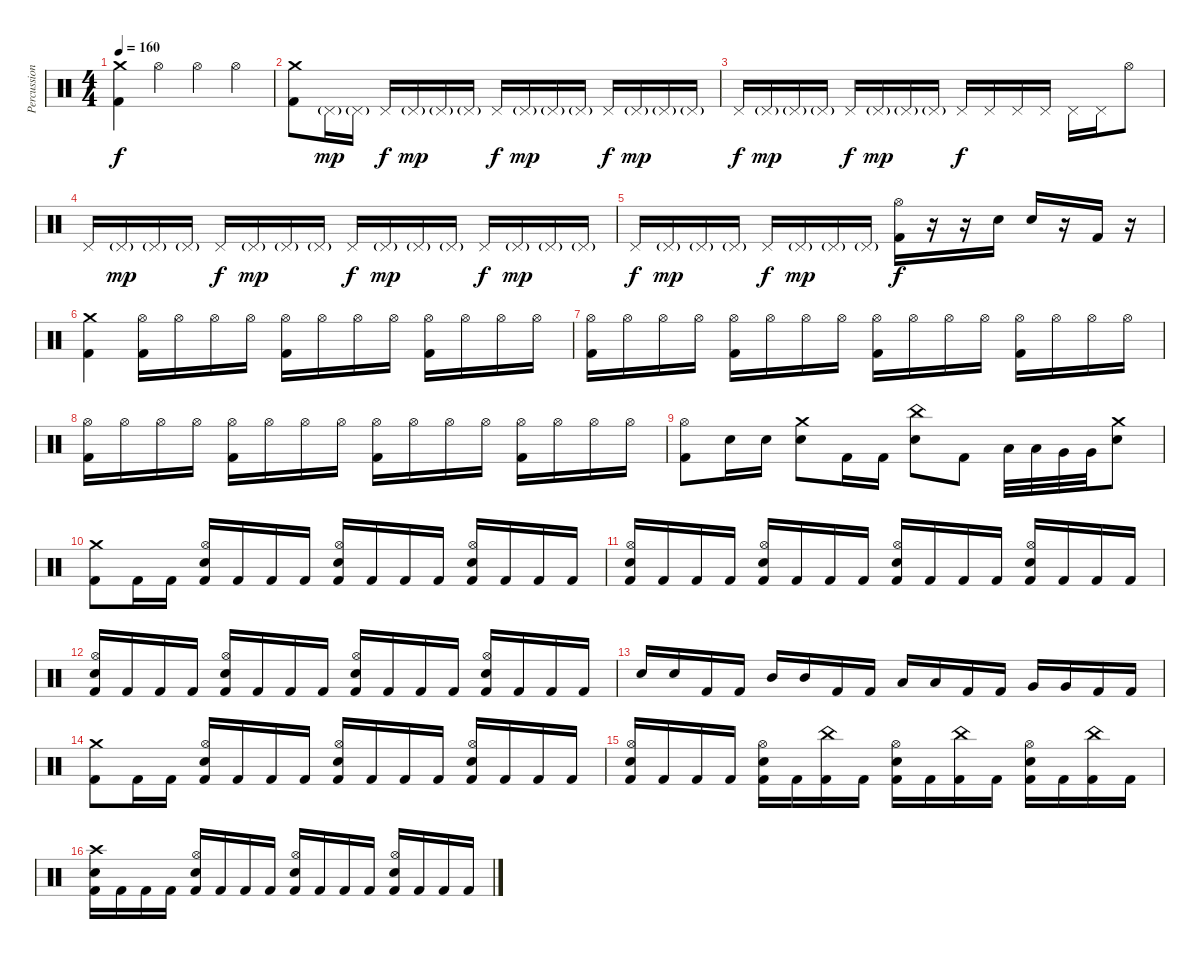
\track ("Percussion" "Percussion") {instrument percussion}
\staff {score}
\articulation defaults
\ts (4 4)
\tempo 160
\clef neutral
\ks c
("Crash medium (hit)" "Kick (hit) 2").4{dy f} "Hi-Hat (open)".4 "Hi-Hat (open)".4 "Hi-Hat (open)".4 |
("Crash medium (hit)" "Kick (hit) 2").8 "Pedal Hi-Hat (hit)"{g}.16{dy mp} "Pedal Hi-Hat (hit)"{g}.16 "Pedal Hi-Hat (hit)".16{dy f} "Pedal Hi-Hat (hit)"{g}.16{dy mp} "Pedal Hi-Hat (hit)"{g}.16 "Pedal Hi-Hat (hit)"{g}.16 "Pedal Hi-Hat (hit)".16{dy f} "Pedal Hi-Hat (hit)"{g}.16{dy mp} "Pedal Hi-Hat (hit)"{g}.16 "Pedal Hi-Hat (hit)"{g}.16 "Pedal Hi-Hat (hit)".16{dy f} "Pedal Hi-Hat (hit)"{g}.16{dy mp} "Pedal Hi-Hat (hit)"{g}.16 "Pedal Hi-Hat (hit)"{g}.16 |
"Pedal Hi-Hat (hit)".16{dy f} "Pedal Hi-Hat (hit)"{g}.16{dy mp} "Pedal Hi-Hat (hit)"{g}.16 "Pedal Hi-Hat (hit)"{g}.16 "Pedal Hi-Hat (hit)".16{dy f} "Pedal Hi-Hat (hit)"{g}.16{dy mp} "Pedal Hi-Hat (hit)"{g}.16 "Pedal Hi-Hat (hit)"{g}.16 "Pedal Hi-Hat (hit)".16{dy f} "Pedal Hi-Hat (hit)".16 "Pedal Hi-Hat (hit)".16 "Pedal Hi-Hat (hit)".16 "Pedal Hi-Hat (hit)".16 "Pedal Hi-Hat (hit)".16 "Hi-Hat (open)".8 |
"Pedal Hi-Hat (hit)".16 "Pedal Hi-Hat (hit)"{g}.16{dy mp} "Pedal Hi-Hat (hit)"{g}.16 "Pedal Hi-Hat (hit)"{g}.16 "Pedal Hi-Hat (hit)".16{dy f} "Pedal Hi-Hat (hit)"{g}.16{dy mp} "Pedal Hi-Hat (hit)"{g}.16 "Pedal Hi-Hat (hit)"{g}.16 "Pedal Hi-Hat (hit)".16{dy f} "Pedal Hi-Hat (hit)"{g}.16{dy mp} "Pedal Hi-Hat (hit)"{g}.16 "Pedal Hi-Hat (hit)"{g}.16 "Pedal Hi-Hat (hit)".16{dy f} "Pedal Hi-Hat (hit)"{g}.16{dy mp} "Pedal Hi-Hat (hit)"{g}.16 "Pedal Hi-Hat (hit)"{g}.16 |
"Pedal Hi-Hat (hit)".16{dy f} "Pedal Hi-Hat (hit)"{g}.16{dy mp} "Pedal Hi-Hat (hit)"{g}.16 "Pedal Hi-Hat (hit)"{g}.16 "Pedal Hi-Hat (hit)".16{dy f} "Pedal Hi-Hat (hit)"{g}.16{dy mp} "Pedal Hi-Hat (hit)"{g}.16 "Pedal Hi-Hat (hit)"{g}.16 ("Hi-Hat (open)" "Kick (hit) 2").16{dy f} r.16 r.16 "Electric Snare (hit)".16 "Electric Snare (hit)".16 r.16 "Kick (hit) 2".16 r.16 |
("Crash medium (hit)" "Kick (hit) 2").4 ("Hi-Hat (open)" "Kick (hit) 2").16 "Hi-Hat (open)".16 "Hi-Hat (open)".16 "Hi-Hat (open)".16 ("Hi-Hat (open)" "Kick (hit) 2").16 "Hi-Hat (open)".16 "Hi-Hat (open)".16 "Hi-Hat (open)".16 ("Hi-Hat (open)" "Kick (hit) 2").16 "Hi-Hat (open)".16 "Hi-Hat (open)".16 "Hi-Hat (open)".16 |
("Hi-Hat (open)" "Kick (hit) 2").16 "Hi-Hat (open)".16 "Hi-Hat (open)".16 "Hi-Hat (open)".16 ("Hi-Hat (open)" "Kick (hit) 2").16 "Hi-Hat (open)".16 "Hi-Hat (open)".16 "Hi-Hat (open)".16 ("Hi-Hat (open)" "Kick (hit) 2").16 "Hi-Hat (open)".16 "Hi-Hat (open)".16 "Hi-Hat (open)".16 ("Hi-Hat (open)" "Kick (hit) 2").16 "Hi-Hat (open)".16 "Hi-Hat (open)".16 "Hi-Hat (open)".16 |
("Hi-Hat (open)" "Kick (hit) 2").16 "Hi-Hat (open)".16 "Hi-Hat (open)".16 "Hi-Hat (open)".16 ("Hi-Hat (open)" "Kick (hit) 2").16 "Hi-Hat (open)".16 "Hi-Hat (open)".16 "Hi-Hat (open)".16 ("Hi-Hat (open)" "Kick (hit) 2").16 "Hi-Hat (open)".16 "Hi-Hat (open)".16 "Hi-Hat (open)".16 ("Hi-Hat (open)" "Kick (hit) 2").16 "Hi-Hat (open)".16 "Hi-Hat (open)".16 "Hi-Hat (open)".16 |
("Hi-Hat (open)" "Kick (hit) 2").8 "Electric Snare (hit)".16 "Electric Snare (hit)".16 ("Crash medium (hit)" "Electric Snare (hit)").8 "Kick (hit) 2".16 "Kick (hit) 2".16 ("China (hit)" "Electric Snare (hit)").8 "Kick (hit) 2".8 "Low Tom (hit)".32 "Low Tom (hit)".32 "Very Low Tom (hit)".32 "Very Low Tom (hit)".32 ("Crash medium (hit)" "Electric Snare (hit)").8 |
("Crash medium (hit)" "Kick (hit) 2").8 "Kick (hit) 2".16 "Kick (hit) 2".16 ("Hi-Hat (open)" "Kick (hit) 2" "Electric Snare (hit)").16 "Kick (hit) 2".16 "Kick (hit) 2".16 "Kick (hit) 2".16 ("Hi-Hat (open)" "Kick (hit) 2" "Electric Snare (hit)").16 "Kick (hit) 2".16 "Kick (hit) 2".16 "Kick (hit) 2".16 ("Hi-Hat (open)" "Kick (hit) 2" "Electric Snare (hit)").16 "Kick (hit) 2".16 "Kick (hit) 2".16 "Kick (hit) 2".16 |
("Hi-Hat (open)" "Kick (hit) 2" "Electric Snare (hit)").16 "Kick (hit) 2".16 "Kick (hit) 2".16 "Kick (hit) 2".16 ("Hi-Hat (open)" "Kick (hit) 2" "Electric Snare (hit)").16 "Kick (hit) 2".16 "Kick (hit) 2".16 "Kick (hit) 2".16 ("Hi-Hat (open)" "Kick (hit) 2" "Electric Snare (hit)").16 "Kick (hit) 2".16 "Kick (hit) 2".16 "Kick (hit) 2".16 ("Hi-Hat (open)" "Kick (hit) 2" "Electric Snare (hit)").16 "Kick (hit) 2".16 "Kick (hit) 2".16 "Kick (hit) 2".16 |
("Hi-Hat (open)" "Kick (hit) 2" "Electric Snare (hit)").16 "Kick (hit) 2".16 "Kick (hit) 2".16 "Kick (hit) 2".16 ("Hi-Hat (open)" "Kick (hit) 2" "Electric Snare (hit)").16 "Kick (hit) 2".16 "Kick (hit) 2".16 "Kick (hit) 2".16 ("Hi-Hat (open)" "Kick (hit) 2" "Electric Snare (hit)").16 "Kick (hit) 2".16 "Kick (hit) 2".16 "Kick (hit) 2".16 ("Hi-Hat (open)" "Kick (hit) 2" "Electric Snare (hit)").16 "Kick (hit) 2".16 "Kick (hit) 2".16 "Kick (hit) 2".16 |
"Electric Snare (hit)".16 "Electric Snare (hit)".16 "Kick (hit) 2".16 "Kick (hit) 2".16 "Mid Tom (hit)".16 "Mid Tom (hit)".16 "Kick (hit) 2".16 "Kick (hit) 2".16 "Low Tom (hit)".16 "Low Tom (hit)".16 "Kick (hit) 2".16 "Kick (hit) 2".16 "Very Low Tom (hit)".16 "Very Low Tom (hit)".16 "Kick (hit) 2".16 "Kick (hit) 2".16 |
("Crash medium (hit)" "Kick (hit) 2").8 "Kick (hit) 2".16 "Kick (hit) 2".16 ("Hi-Hat (open)" "Kick (hit) 2" "Electric Snare (hit)").16 "Kick (hit) 2".16 "Kick (hit) 2".16 "Kick (hit) 2".16 ("Hi-Hat (open)" "Kick (hit) 2" "Electric Snare (hit)").16 "Kick (hit) 2".16 "Kick (hit) 2".16 "Kick (hit) 2".16 ("Hi-Hat (open)" "Kick (hit) 2" "Electric Snare (hit)").16 "Kick (hit) 2".16 "Kick (hit) 2".16 "Kick (hit) 2".16 |
("Hi-Hat (open)" "Kick (hit) 2" "Electric Snare (hit)").16 "Kick (hit) 2".16 "Kick (hit) 2".16 "Kick (hit) 2".16 ("Hi-Hat (open)" "Kick (hit) 2" "Electric Snare (hit)").16 "Kick (hit) 2".16 ("China (hit)" "Kick (hit) 2").16 "Kick (hit) 2".16 ("Hi-Hat (open)" "Kick (hit) 2" "Electric Snare (hit)").16 "Kick (hit) 2".16 ("China (hit)" "Kick (hit) 2").16 "Kick (hit) 2".16 ("Hi-Hat (open)" "Kick (hit) 2" "Electric Snare (hit)").16 "Kick (hit) 2".16 ("China (hit)" "Kick (hit) 2").16 "Kick (hit) 2".16 |
("Crash high (hit)" "Kick (hit) 2" "Electric Snare (hit)").16 "Kick (hit) 2".16 "Kick (hit) 2".16 "Kick (hit) 2".16 ("Hi-Hat (open)" "Kick (hit) 2" "Electric Snare (hit)").16 "Kick (hit) 2".16 "Kick (hit) 2".16 "Kick (hit) 2".16 ("Hi-Hat (open)" "Kick (hit) 2" "Electric Snare (hit)").16 "Kick (hit) 2".16 "Kick (hit) 2".16 "Kick (hit) 2".16 ("Hi-Hat (open)" "Kick (hit) 2" "Electric Snare (hit)").16 "Kick (hit) 2".16 "Kick (hit) 2".16 "Kick (hit) 2".16
